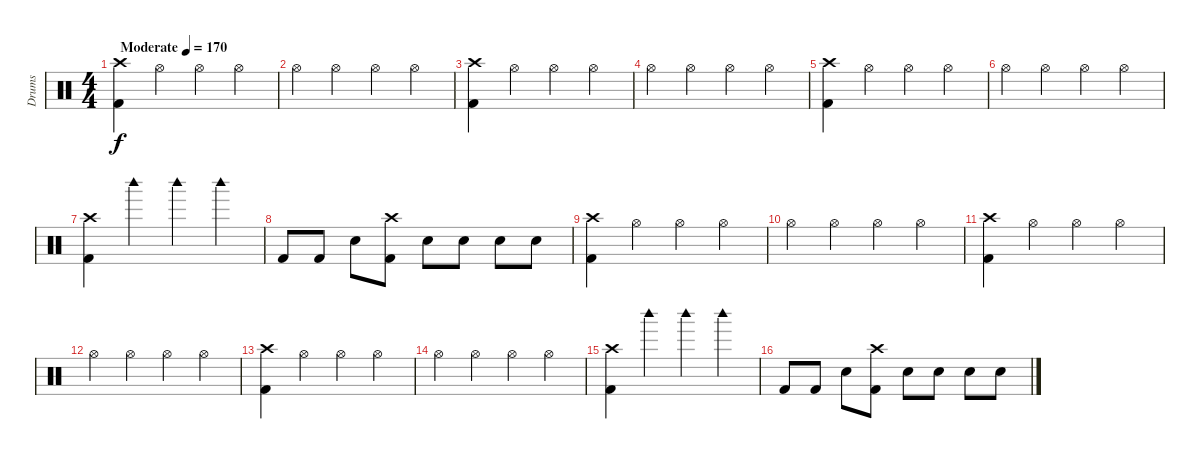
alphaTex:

\track ("Drums" "Drums") {instrument percussion}
\staff {score}
\articulation defaults
\ts (4 4)
\tempo (170 "Moderate")
\clef neutral
\ks c
("Crash high (hit)" "Kick (hit) 2").4{dy f} "Hi-Hat (open)".4 "Hi-Hat (open)".4 "Hi-Hat (open)".4 |
"Hi-Hat (open)".4 "Hi-Hat (open)".4 "Hi-Hat (open)".4 "Hi-Hat (open)".4 |
("Crash high (hit)" "Kick (hit) 2").4 "Hi-Hat (open)".4 "Hi-Hat (open)".4 "Hi-Hat (open)".4 |
"Hi-Hat (open)".4 "Hi-Hat (open)".4 "Hi-Hat (open)".4 "Hi-Hat (open)".4 |
("Crash high (hit)" "Kick (hit) 2").4 "Hi-Hat (open)".4 "Hi-Hat (open)".4 "Hi-Hat (open)".4 |
"Hi-Hat (open)".4 "Hi-Hat (open)".4 "Hi-Hat (open)".4 "Hi-Hat (open)".4 |
("Crash high (hit)" "Kick (hit) 2").4 "Woodblock high (hit)".4 "Woodblock high (hit)".4 "Woodblock high (hit)".4 |
"Kick (hit) 2".8 "Kick (hit) 2".8 "Snare (hit) 2".8 ("Crash high (hit)" "Kick (hit) 2").8 "Snare (hit) 2".8 "Snare (hit) 2".8 "Snare (hit) 2".8 "Snare (hit) 2".8 |
("Crash high (hit)" "Kick (hit) 2").4 "Hi-Hat (open)".4 "Hi-Hat (open)".4 "Hi-Hat (open)".4 |
"Hi-Hat (open)".4 "Hi-Hat (open)".4 "Hi-Hat (open)".4 "Hi-Hat (open)".4 |
("Crash high (hit)" "Kick (hit) 2").4 "Hi-Hat (open)".4 "Hi-Hat (open)".4 "Hi-Hat (open)".4 |
"Hi-Hat (open)".4 "Hi-Hat (open)".4 "Hi-Hat (open)".4 "Hi-Hat (open)".4 |
("Crash high (hit)" "Kick (hit) 2").4 "Hi-Hat (open)".4 "Hi-Hat (open)".4 "Hi-Hat (open)".4 |
"Hi-Hat (open)".4 "Hi-Hat (open)".4 "Hi-Hat (open)".4 "Hi-Hat (open)".4 |
("Crash high (hit)" "Kick (hit) 2").4 "Woodblock high (hit)".4 "Woodblock high (hit)".4 "Woodblock high (hit)".4 |
"Kick (hit) 2".8 "Kick (hit) 2".8 "Snare (hit) 2".8 ("Crash high (hit)" "Kick (hit) 2").8 "Snare (hit) 2".8 "Snare (hit) 2".8 "Snare (hit) 2".8 "Snare (hit) 2".8
